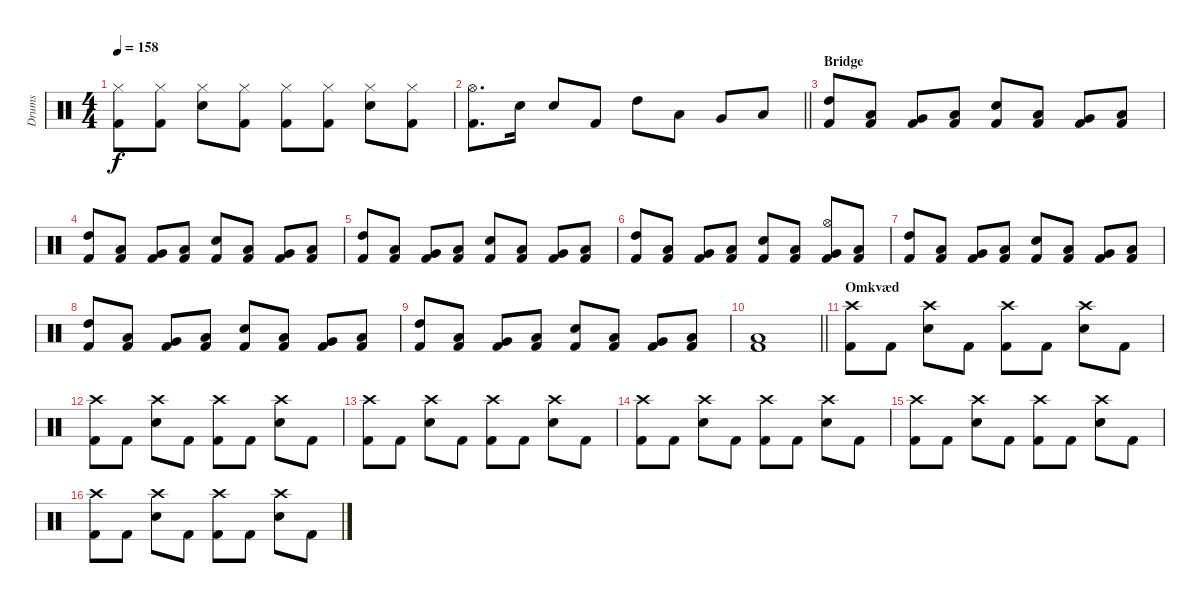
\track ("Drums" "Drums") {instrument percussion}
\staff {score}
\articulation defaults
\ts (4 4)
\tempo 158
\clef neutral
\ks c
("Hi-Hat (closed)" "Kick (hit) 2").8{dy f} ("Hi-Hat (closed)" "Kick (hit) 2").8 ("Hi-Hat (closed)" "Electric Snare (hit)").8 ("Hi-Hat (closed)" "Kick (hit) 2").8 ("Hi-Hat (closed)" "Kick (hit) 2").8 ("Hi-Hat (closed)" "Kick (hit) 2").8 ("Hi-Hat (closed)" "Electric Snare (hit)").8 ("Hi-Hat (closed)" "Kick (hit) 2").8 |
\barLineRight lightlight
("Hi-Hat (open)" "Kick (hit) 2").8{d} "Electric Snare (hit)".16 "Electric Snare (hit)".8 "Kick (hit) 2".8 "High Tom (hit)".8 "Low Tom (hit)".8 "Very Low Tom (hit)".8 "Low Floor Tom (hit)".8 |
\section ("" "Bridge")
("High Tom (hit)" "Kick (hit) 2").8 ("Low Tom (hit)" "Kick (hit) 2").8 ("Very Low Tom (hit)" "Kick (hit) 2").8 ("Low Floor Tom (hit)" "Kick (hit) 2").8 ("Electric Snare (hit)" "Kick (hit) 2").8 ("Low Tom (hit)" "Kick (hit) 2").8 ("Very Low Tom (hit)" "Kick (hit) 2").8 ("Low Floor Tom (hit)" "Kick (hit) 2").8 |
("High Tom (hit)" "Kick (hit) 2").8 ("Low Tom (hit)" "Kick (hit) 2").8 ("Very Low Tom (hit)" "Kick (hit) 2").8 ("Low Floor Tom (hit)" "Kick (hit) 2").8 ("Electric Snare (hit)" "Kick (hit) 2").8 ("Low Tom (hit)" "Kick (hit) 2").8 ("Very Low Tom (hit)" "Kick (hit) 2").8 ("Low Floor Tom (hit)" "Kick (hit) 2").8 |
("High Tom (hit)" "Kick (hit) 2").8 ("Low Tom (hit)" "Kick (hit) 2").8 ("Very Low Tom (hit)" "Kick (hit) 2").8 ("Low Floor Tom (hit)" "Kick (hit) 2").8 ("Electric Snare (hit)" "Kick (hit) 2").8 ("Low Tom (hit)" "Kick (hit) 2").8 ("Very Low Tom (hit)" "Kick (hit) 2").8 ("Low Floor Tom (hit)" "Kick (hit) 2").8 |
("High Tom (hit)" "Kick (hit) 2").8 ("Low Tom (hit)" "Kick (hit) 2").8 ("Very Low Tom (hit)" "Kick (hit) 2").8 ("Low Floor Tom (hit)" "Kick (hit) 2").8 ("Electric Snare (hit)" "Kick (hit) 2").8 ("Low Tom (hit)" "Kick (hit) 2").8 ("Hi-Hat (open)" "Very Low Tom (hit)" "Kick (hit) 2").8 ("Low Floor Tom (hit)" "Kick (hit) 2").8 |
("High Tom (hit)" "Kick (hit) 2").8 ("Low Tom (hit)" "Kick (hit) 2").8 ("Very Low Tom (hit)" "Kick (hit) 2").8 ("Low Floor Tom (hit)" "Kick (hit) 2").8 ("Electric Snare (hit)" "Kick (hit) 2").8 ("Low Tom (hit)" "Kick (hit) 2").8 ("Very Low Tom (hit)" "Kick (hit) 2").8 ("Low Floor Tom (hit)" "Kick (hit) 2").8 |
("High Tom (hit)" "Kick (hit) 2").8 ("Low Tom (hit)" "Kick (hit) 2").8 ("Very Low Tom (hit)" "Kick (hit) 2").8 ("Low Floor Tom (hit)" "Kick (hit) 2").8 ("Electric Snare (hit)" "Kick (hit) 2").8 ("Low Tom (hit)" "Kick (hit) 2").8 ("Very Low Tom (hit)" "Kick (hit) 2").8 ("Low Floor Tom (hit)" "Kick (hit) 2").8 |
("High Tom (hit)" "Kick (hit) 2").8 ("Low Tom (hit)" "Kick (hit) 2").8 ("Very Low Tom (hit)" "Kick (hit) 2").8 ("Low Floor Tom (hit)" "Kick (hit) 2").8 ("Electric Snare (hit)" "Kick (hit) 2").8 ("Low Tom (hit)" "Kick (hit) 2").8 ("Very Low Tom (hit)" "Kick (hit) 2").8 ("Low Floor Tom (hit)" "Kick (hit) 2").8 |
\barLineRight lightlight
("Low Floor Tom (hit)" "Kick (hit) 2").1 |
\section ("" "Omkvæd")
("Crash high (hit)" "Kick (hit) 2").8 "Kick (hit) 2".8 ("Crash high (hit)" "Electric Snare (hit)").8 "Kick (hit) 2".8 ("Crash high (hit)" "Kick (hit) 2").8 "Kick (hit) 2".8 ("Crash high (hit)" "Electric Snare (hit)").8 "Kick (hit) 2".8 |
("Crash high (hit)" "Kick (hit) 2").8 "Kick (hit) 2".8 ("Crash high (hit)" "Electric Snare (hit)").8 "Kick (hit) 2".8 ("Crash high (hit)" "Kick (hit) 2").8 "Kick (hit) 2".8 ("Crash high (hit)" "Electric Snare (hit)").8 "Kick (hit) 2".8 |
("Crash high (hit)" "Kick (hit) 2").8 "Kick (hit) 2".8 ("Crash high (hit)" "Electric Snare (hit)").8 "Kick (hit) 2".8 ("Crash high (hit)" "Kick (hit) 2").8 "Kick (hit) 2".8 ("Crash high (hit)" "Electric Snare (hit)").8 "Kick (hit) 2".8 |
("Crash high (hit)" "Kick (hit) 2").8 "Kick (hit) 2".8 ("Crash high (hit)" "Electric Snare (hit)").8 "Kick (hit) 2".8 ("Crash high (hit)" "Kick (hit) 2").8 "Kick (hit) 2".8 ("Crash high (hit)" "Electric Snare (hit)").8 "Kick (hit) 2".8 |
("Crash high (hit)" "Kick (hit) 2").8 "Kick (hit) 2".8 ("Crash high (hit)" "Electric Snare (hit)").8 "Kick (hit) 2".8 ("Crash high (hit)" "Kick (hit) 2").8 "Kick (hit) 2".8 ("Crash high (hit)" "Electric Snare (hit)").8 "Kick (hit) 2".8 |
("Crash high (hit)" "Kick (hit) 2").8 "Kick (hit) 2".8 ("Crash high (hit)" "Electric Snare (hit)").8 "Kick (hit) 2".8 ("Crash high (hit)" "Kick (hit) 2").8 "Kick (hit) 2".8 ("Crash high (hit)" "Electric Snare (hit)").8 "Kick (hit) 2".8
